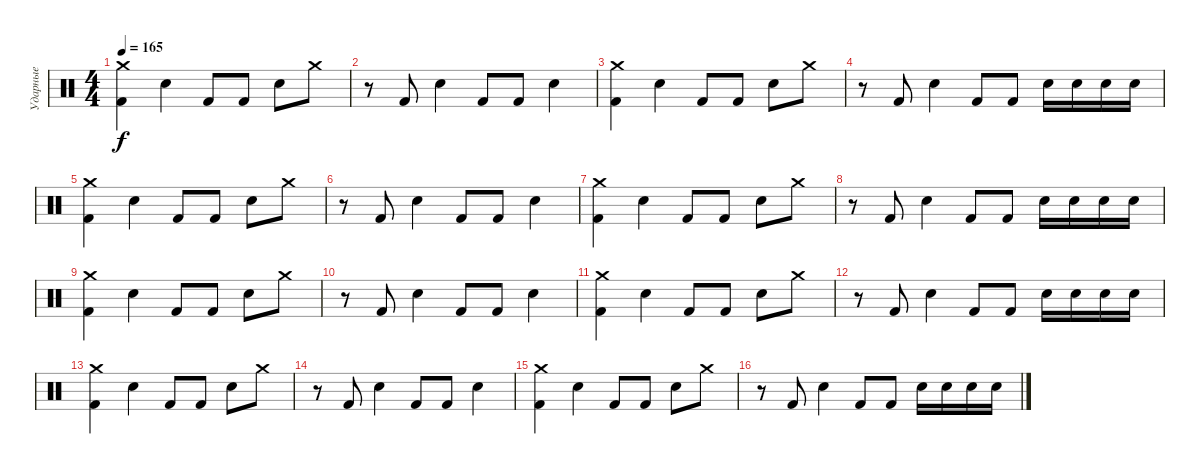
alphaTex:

\track ("Ударные" "Ударные") {instrument percussion}
\staff {score}
\articulation defaults
\ts (4 4)
\tempo 165
\clef neutral
\ks c
("Crash medium (hit)" "Kick (hit) 2").4{dy f} "Snare (hit) 2".4 "Kick (hit) 2".8 "Kick (hit) 2".8 "Snare (hit) 2".8 "Crash medium (hit)".8 |
r.8 "Kick (hit) 2".8 "Snare (hit) 2".4 "Kick (hit) 2".8 "Kick (hit) 2".8 "Snare (hit) 2".4 |
("Crash medium (hit)" "Kick (hit) 2").4 "Snare (hit) 2".4 "Kick (hit) 2".8 "Kick (hit) 2".8 "Snare (hit) 2".8 "Crash medium (hit)".8 |
r.8 "Kick (hit) 2".8 "Snare (hit) 2".4 "Kick (hit) 2".8 "Kick (hit) 2".8 "Snare (hit) 2".16 "Snare (hit) 2".16 "Snare (hit) 2".16 "Snare (hit) 2".16 |
("Crash medium (hit)" "Kick (hit) 2").4 "Snare (hit) 2".4 "Kick (hit) 2".8 "Kick (hit) 2".8 "Snare (hit) 2".8 "Crash medium (hit)".8 |
r.8 "Kick (hit) 2".8 "Snare (hit) 2".4 "Kick (hit) 2".8 "Kick (hit) 2".8 "Snare (hit) 2".4 |
("Crash medium (hit)" "Kick (hit) 2").4 "Snare (hit) 2".4 "Kick (hit) 2".8 "Kick (hit) 2".8 "Snare (hit) 2".8 "Crash medium (hit)".8 |
r.8 "Kick (hit) 2".8 "Snare (hit) 2".4 "Kick (hit) 2".8 "Kick (hit) 2".8 "Snare (hit) 2".16 "Snare (hit) 2".16 "Snare (hit) 2".16 "Snare (hit) 2".16 |
("Crash medium (hit)" "Kick (hit) 2").4 "Snare (hit) 2".4 "Kick (hit) 2".8 "Kick (hit) 2".8 "Snare (hit) 2".8 "Crash medium (hit)".8 |
r.8 "Kick (hit) 2".8 "Snare (hit) 2".4 "Kick (hit) 2".8 "Kick (hit) 2".8 "Snare (hit) 2".4 |
("Crash medium (hit)" "Kick (hit) 2").4 "Snare (hit) 2".4 "Kick (hit) 2".8 "Kick (hit) 2".8 "Snare (hit) 2".8 "Crash medium (hit)".8 |
r.8 "Kick (hit) 2".8 "Snare (hit) 2".4 "Kick (hit) 2".8 "Kick (hit) 2".8 "Snare (hit) 2".16 "Snare (hit) 2".16 "Snare (hit) 2".16 "Snare (hit) 2".16 |
("Crash medium (hit)" "Kick (hit) 2").4 "Snare (hit) 2".4 "Kick (hit) 2".8 "Kick (hit) 2".8 "Snare (hit) 2".8 "Crash medium (hit)".8 |
r.8 "Kick (hit) 2".8 "Snare (hit) 2".4 "Kick (hit) 2".8 "Kick (hit) 2".8 "Snare (hit) 2".4 |
("Crash medium (hit)" "Kick (hit) 2").4 "Snare (hit) 2".4 "Kick (hit) 2".8 "Kick (hit) 2".8 "Snare (hit) 2".8 "Crash medium (hit)".8 |
r.8 "Kick (hit) 2".8 "Snare (hit) 2".4 "Kick (hit) 2".8 "Kick (hit) 2".8 "Snare (hit) 2".16 "Snare (hit) 2".16 "Snare (hit) 2".16 "Snare (hit) 2".16
